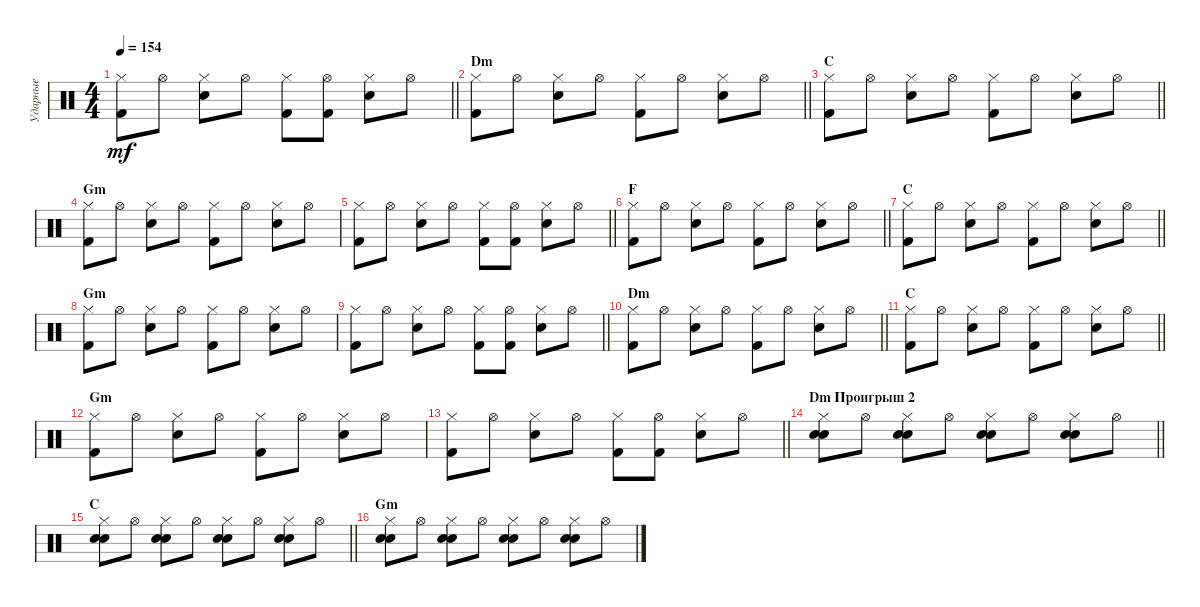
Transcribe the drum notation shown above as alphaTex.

\track ("Ударные" "Ударные") {instrument percussion}
\staff {score}
\articulation defaults
\ts (4 4)
\tempo 154
\clef neutral
\barLineRight lightlight
\ks c
("Hi-Hat (closed)" "Kick (hit) 2").8{dy mf} "Hi-Hat (open)".8 ("Hi-Hat (closed)" "Electric Snare (hit)").8 "Hi-Hat (open)".8 ("Hi-Hat (closed)" "Kick (hit) 2").8 ("Hi-Hat (open)" "Kick (hit) 2").8 ("Hi-Hat (closed)" "Electric Snare (hit)").8 "Hi-Hat (open)".8 |
\section ("" "Dm")
\barLineRight lightlight
("Hi-Hat (closed)" "Kick (hit) 2").8 "Hi-Hat (open)".8 ("Hi-Hat (closed)" "Electric Snare (hit)").8 "Hi-Hat (open)".8 ("Hi-Hat (closed)" "Kick (hit) 2").8 "Hi-Hat (open)".8 ("Hi-Hat (closed)" "Electric Snare (hit)").8 "Hi-Hat (open)".8 |
\section ("" "C")
\barLineRight lightlight
("Hi-Hat (closed)" "Kick (hit) 2").8 "Hi-Hat (open)".8 ("Hi-Hat (closed)" "Electric Snare (hit)").8 "Hi-Hat (open)".8 ("Hi-Hat (closed)" "Kick (hit) 2").8 "Hi-Hat (open)".8 ("Hi-Hat (closed)" "Electric Snare (hit)").8 "Hi-Hat (open)".8 |
\section ("" "Gm")
("Hi-Hat (closed)" "Kick (hit) 2").8 "Hi-Hat (open)".8 ("Hi-Hat (closed)" "Electric Snare (hit)").8 "Hi-Hat (open)".8 ("Hi-Hat (closed)" "Kick (hit) 2").8 "Hi-Hat (open)".8 ("Hi-Hat (closed)" "Electric Snare (hit)").8 "Hi-Hat (open)".8 |
\barLineRight lightlight
("Hi-Hat (closed)" "Kick (hit) 2").8 "Hi-Hat (open)".8 ("Hi-Hat (closed)" "Electric Snare (hit)").8 "Hi-Hat (open)".8 ("Hi-Hat (closed)" "Kick (hit) 2").8 ("Hi-Hat (open)" "Kick (hit) 2").8 ("Hi-Hat (closed)" "Electric Snare (hit)").8 "Hi-Hat (open)".8 |
\section ("" "F")
\barLineRight lightlight
("Hi-Hat (closed)" "Kick (hit) 2").8 "Hi-Hat (open)".8 ("Hi-Hat (closed)" "Electric Snare (hit)").8 "Hi-Hat (open)".8 ("Hi-Hat (closed)" "Kick (hit) 2").8 "Hi-Hat (open)".8 ("Hi-Hat (closed)" "Electric Snare (hit)").8 "Hi-Hat (open)".8 |
\section ("" "C")
\barLineRight lightlight
("Hi-Hat (closed)" "Kick (hit) 2").8 "Hi-Hat (open)".8 ("Hi-Hat (closed)" "Electric Snare (hit)").8 "Hi-Hat (open)".8 ("Hi-Hat (closed)" "Kick (hit) 2").8 "Hi-Hat (open)".8 ("Hi-Hat (closed)" "Electric Snare (hit)").8 "Hi-Hat (open)".8 |
\section ("" "Gm")
("Hi-Hat (closed)" "Kick (hit) 2").8 "Hi-Hat (open)".8 ("Hi-Hat (closed)" "Electric Snare (hit)").8 "Hi-Hat (open)".8 ("Hi-Hat (closed)" "Kick (hit) 2").8 "Hi-Hat (open)".8 ("Hi-Hat (closed)" "Electric Snare (hit)").8 "Hi-Hat (open)".8 |
\barLineRight lightlight
("Hi-Hat (closed)" "Kick (hit) 2").8 "Hi-Hat (open)".8 ("Hi-Hat (closed)" "Electric Snare (hit)").8 "Hi-Hat (open)".8 ("Hi-Hat (closed)" "Kick (hit) 2").8 ("Hi-Hat (open)" "Kick (hit) 2").8 ("Hi-Hat (closed)" "Electric Snare (hit)").8 "Hi-Hat (open)".8 |
\section ("" "Dm")
\barLineRight lightlight
("Hi-Hat (closed)" "Kick (hit) 2").8 "Hi-Hat (open)".8 ("Hi-Hat (closed)" "Electric Snare (hit)").8 "Hi-Hat (open)".8 ("Hi-Hat (closed)" "Kick (hit) 2").8 "Hi-Hat (open)".8 ("Hi-Hat (closed)" "Electric Snare (hit)").8 "Hi-Hat (open)".8 |
\section ("" "C")
\barLineRight lightlight
("Hi-Hat (closed)" "Kick (hit) 2").8 "Hi-Hat (open)".8 ("Hi-Hat (closed)" "Electric Snare (hit)").8 "Hi-Hat (open)".8 ("Hi-Hat (closed)" "Kick (hit) 2").8 "Hi-Hat (open)".8 ("Hi-Hat (closed)" "Electric Snare (hit)").8 "Hi-Hat (open)".8 |
\section ("" "Gm")
("Hi-Hat (closed)" "Kick (hit) 2").8 "Hi-Hat (open)".8 ("Hi-Hat (closed)" "Electric Snare (hit)").8 "Hi-Hat (open)".8 ("Hi-Hat (closed)" "Kick (hit) 2").8 "Hi-Hat (open)".8 ("Hi-Hat (closed)" "Electric Snare (hit)").8 "Hi-Hat (open)".8 |
\barLineRight lightlight
("Hi-Hat (closed)" "Kick (hit) 2").8 "Hi-Hat (open)".8 ("Hi-Hat (closed)" "Electric Snare (hit)").8 "Hi-Hat (open)".8 ("Hi-Hat (closed)" "Kick (hit) 2").8 ("Hi-Hat (open)" "Kick (hit) 2").8 ("Hi-Hat (closed)" "Electric Snare (hit)").8 "Hi-Hat (open)".8 |
\section ("" "Dm Проигрыш 2")
\barLineRight lightlight
("Hi-Hat (closed)" "Electric Snare (hit)" "Hand Clap (hit)").8 "Hi-Hat (open)".8 ("Hi-Hat (closed)" "Electric Snare (hit)" "Hand Clap (hit)").8 "Hi-Hat (open)".8 ("Hi-Hat (closed)" "Electric Snare (hit)" "Hand Clap (hit)").8 "Hi-Hat (open)".8 ("Hi-Hat (closed)" "Electric Snare (hit)" "Hand Clap (hit)").8 "Hi-Hat (open)".8 |
\section ("" "C")
\barLineRight lightlight
("Hi-Hat (closed)" "Electric Snare (hit)" "Hand Clap (hit)").8 "Hi-Hat (open)".8 ("Hi-Hat (closed)" "Electric Snare (hit)" "Hand Clap (hit)").8 "Hi-Hat (open)".8 ("Hi-Hat (closed)" "Electric Snare (hit)" "Hand Clap (hit)").8 "Hi-Hat (open)".8 ("Hi-Hat (closed)" "Electric Snare (hit)" "Hand Clap (hit)").8 "Hi-Hat (open)".8 |
\section ("" "Gm")
("Hi-Hat (closed)" "Electric Snare (hit)" "Hand Clap (hit)").8 "Hi-Hat (open)".8 ("Hi-Hat (closed)" "Electric Snare (hit)" "Hand Clap (hit)").8 "Hi-Hat (open)".8 ("Hi-Hat (closed)" "Electric Snare (hit)" "Hand Clap (hit)").8 "Hi-Hat (open)".8 ("Hi-Hat (closed)" "Electric Snare (hit)" "Hand Clap (hit)").8 "Hi-Hat (open)".8
